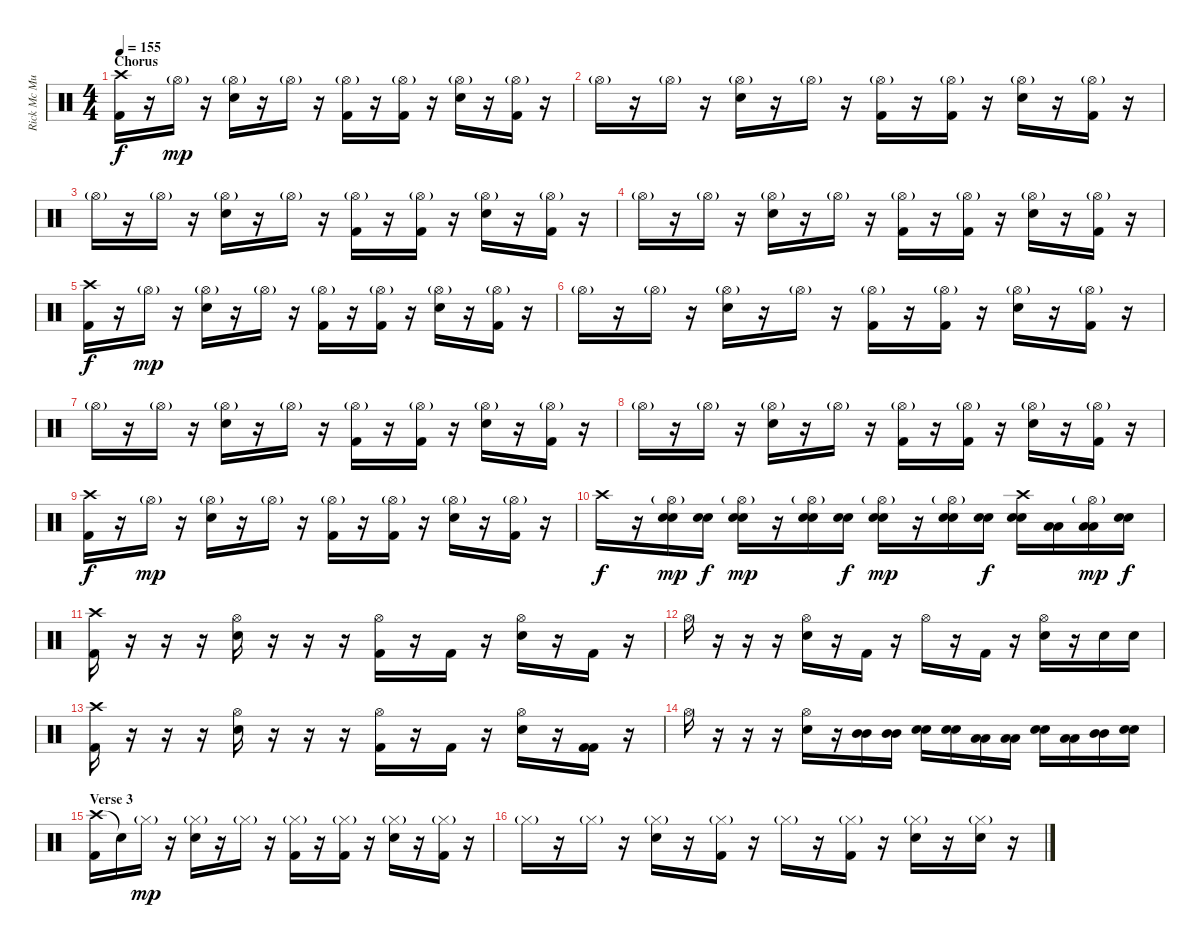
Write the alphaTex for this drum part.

\track ("Rick Mc Murray" "Rick Mc Mu") {instrument percussion}
\staff {score}
\articulation defaults
\ts (4 4)
\section ("" "Chorus")
\tempo 155
\clef neutral
\ks c
("Crash high (hit)" "Kick (hit) 2").16{dy f} r.16 "Hi-Hat (open)"{g}.16{dy mp} r.16 ("Hi-Hat (open)"{g} "Electric Snare (hit)").16 r.16 "Hi-Hat (open)"{g}.16 r.16 ("Hi-Hat (open)"{g} "Kick (hit) 2").16 r.16 ("Hi-Hat (open)"{g} "Kick (hit) 2").16 r.16 ("Hi-Hat (open)"{g} "Electric Snare (hit)").16 r.16 ("Hi-Hat (open)"{g} "Kick (hit) 2").16 r.16 |
"Hi-Hat (open)"{g}.16 r.16 "Hi-Hat (open)"{g}.16 r.16 ("Hi-Hat (open)"{g} "Electric Snare (hit)").16 r.16 "Hi-Hat (open)"{g}.16 r.16 ("Hi-Hat (open)"{g} "Kick (hit) 2").16 r.16 ("Hi-Hat (open)"{g} "Kick (hit) 2").16 r.16 ("Hi-Hat (open)"{g} "Electric Snare (hit)").16 r.16 ("Hi-Hat (open)"{g} "Kick (hit) 2").16 r.16 |
"Hi-Hat (open)"{g}.16 r.16 "Hi-Hat (open)"{g}.16 r.16 ("Hi-Hat (open)"{g} "Electric Snare (hit)").16 r.16 "Hi-Hat (open)"{g}.16 r.16 ("Hi-Hat (open)"{g} "Kick (hit) 2").16 r.16 ("Hi-Hat (open)"{g} "Kick (hit) 2").16 r.16 ("Hi-Hat (open)"{g} "Electric Snare (hit)").16 r.16 ("Hi-Hat (open)"{g} "Kick (hit) 2").16 r.16 |
"Hi-Hat (open)"{g}.16 r.16 "Hi-Hat (open)"{g}.16 r.16 ("Hi-Hat (open)"{g} "Electric Snare (hit)").16 r.16 "Hi-Hat (open)"{g}.16 r.16 ("Hi-Hat (open)"{g} "Kick (hit) 2").16 r.16 ("Hi-Hat (open)"{g} "Kick (hit) 2").16 r.16 ("Hi-Hat (open)"{g} "Electric Snare (hit)").16 r.16 ("Hi-Hat (open)"{g} "Kick (hit) 2").16 r.16 |
("Crash high (hit)" "Kick (hit) 2").16{dy f} r.16 "Hi-Hat (open)"{g}.16{dy mp} r.16 ("Hi-Hat (open)"{g} "Electric Snare (hit)").16 r.16 "Hi-Hat (open)"{g}.16 r.16 ("Hi-Hat (open)"{g} "Kick (hit) 2").16 r.16 ("Hi-Hat (open)"{g} "Kick (hit) 2").16 r.16 ("Hi-Hat (open)"{g} "Electric Snare (hit)").16 r.16 ("Hi-Hat (open)"{g} "Kick (hit) 2").16 r.16 |
"Hi-Hat (open)"{g}.16 r.16 "Hi-Hat (open)"{g}.16 r.16 ("Hi-Hat (open)"{g} "Electric Snare (hit)").16 r.16 "Hi-Hat (open)"{g}.16 r.16 ("Hi-Hat (open)"{g} "Kick (hit) 2").16 r.16 ("Hi-Hat (open)"{g} "Kick (hit) 2").16 r.16 ("Hi-Hat (open)"{g} "Electric Snare (hit)").16 r.16 ("Hi-Hat (open)"{g} "Kick (hit) 2").16 r.16 |
"Hi-Hat (open)"{g}.16 r.16 "Hi-Hat (open)"{g}.16 r.16 ("Hi-Hat (open)"{g} "Electric Snare (hit)").16 r.16 "Hi-Hat (open)"{g}.16 r.16 ("Hi-Hat (open)"{g} "Kick (hit) 2").16 r.16 ("Hi-Hat (open)"{g} "Kick (hit) 2").16 r.16 ("Hi-Hat (open)"{g} "Electric Snare (hit)").16 r.16 ("Hi-Hat (open)"{g} "Kick (hit) 2").16 r.16 |
"Hi-Hat (open)"{g}.16 r.16 "Hi-Hat (open)"{g}.16 r.16 ("Hi-Hat (open)"{g} "Electric Snare (hit)").16 r.16 "Hi-Hat (open)"{g}.16 r.16 ("Hi-Hat (open)"{g} "Kick (hit) 2").16 r.16 ("Hi-Hat (open)"{g} "Kick (hit) 2").16 r.16 ("Hi-Hat (open)"{g} "Electric Snare (hit)").16 r.16 ("Hi-Hat (open)"{g} "Kick (hit) 2").16 r.16 |
("Crash high (hit)" "Kick (hit) 2").16{dy f} r.16 "Hi-Hat (open)"{g}.16{dy mp} r.16 ("Hi-Hat (open)"{g} "Electric Snare (hit)").16 r.16 "Hi-Hat (open)"{g}.16 r.16 ("Hi-Hat (open)"{g} "Kick (hit) 2").16 r.16 ("Hi-Hat (open)"{g} "Kick (hit) 2").16 r.16 ("Hi-Hat (open)"{g} "Electric Snare (hit)").16 r.16 ("Hi-Hat (open)"{g} "Kick (hit) 2").16 r.16 |
"Crash high (hit)".16{dy f} r.16 ("Hi-Hat (open)"{g} "Electric Snare (hit)" "Snare (hit) 2").16{dy mp} ("Electric Snare (hit)" "Snare (hit) 2").16{dy f} ("Hi-Hat (open)"{g} "Electric Snare (hit)" "Snare (hit) 2").16{dy mp} r.16 ("Hi-Hat (open)"{g} "Electric Snare (hit)" "Snare (hit) 2").16 ("Electric Snare (hit)" "Snare (hit) 2").16{dy f} ("Hi-Hat (open)"{g} "Electric Snare (hit)" "Snare (hit) 2").16{dy mp} r.16 ("Hi-Hat (open)"{g} "Electric Snare (hit)" "Snare (hit) 2").16 ("Electric Snare (hit)" "Snare (hit) 2").16{dy f} ("Crash high (hit)" "Electric Snare (hit)" "Snare (hit) 2").16 ("Low Tom (hit)" "Low Tom (hit)").16 ("Hi-Hat (open)"{g} "Low Tom (hit)" "Low Tom (hit)").16{dy mp} ("Electric Snare (hit)" "Snare (hit) 2").16{dy f} |
("Crash high (hit)" "Kick (hit) 2").16 r.16 r.16 r.16 ("Hi-Hat (open)" "Electric Snare (hit)").16 r.16 r.16 r.16 ("Hi-Hat (open)" "Kick (hit) 2").16 r.16 "Kick (hit) 2".16 r.16 ("Hi-Hat (open)" "Electric Snare (hit)").16 r.16 "Kick (hit) 2".16 r.16 |
"Hi-Hat (open)".16 r.16 r.16 r.16 ("Hi-Hat (open)" "Electric Snare (hit)").16 r.16 "Kick (hit) 2".16 r.16 "Hi-Hat (open)".16 r.16 "Kick (hit) 2".16 r.16 ("Hi-Hat (open)" "Electric Snare (hit)").16 r.16 "Electric Snare (hit)".16 "Electric Snare (hit)".16 |
("Crash high (hit)" "Kick (hit) 2").16 r.16 r.16 r.16 ("Hi-Hat (open)" "Electric Snare (hit)").16 r.16 r.16 r.16 ("Hi-Hat (open)" "Kick (hit) 2").16 r.16 "Kick (hit) 2".16 r.16 ("Hi-Hat (open)" "Electric Snare (hit)").16 r.16 ("Kick (hit) 2" "Kick (hit) 2").16 r.16 |
"Hi-Hat (open)".16 r.16 r.16 r.16 ("Hi-Hat (open)" "Electric Snare (hit)").16 r.16 ("Mid Tom (hit)" "Mid Tom (hit)").16 ("Mid Tom (hit)" "Mid Tom (hit)").16 ("Snare (hit) 2" "Electric Snare (hit)").16 ("Snare (hit) 2" "Electric Snare (hit)").16 ("Low Tom (hit)" "Low Tom (hit)").16 ("Low Tom (hit)" "Low Tom (hit)").16 ("Snare (hit) 2" "Electric Snare (hit)").16 ("Low Tom (hit)" "Low Tom (hit)").16 ("Mid Tom (hit)" "Mid Tom (hit)").16 ("Snare (hit) 2" "Electric Snare (hit)").16 |
\section ("" "Verse 3")
("Crash high (hit)" "Kick (hit) 2").16 "Snare (hit)"{t}.16 "Hi-Hat (closed)"{g}.16{dy mp} r.16 ("Hi-Hat (closed)"{g} "Electric Snare (hit)").16 r.16 "Hi-Hat (closed)"{g}.16 r.16 ("Hi-Hat (closed)"{g} "Kick (hit) 2").16 r.16 ("Hi-Hat (closed)"{g} "Kick (hit) 2").16 r.16 ("Hi-Hat (closed)"{g} "Electric Snare (hit)").16 r.16 ("Hi-Hat (closed)"{g} "Kick (hit) 2").16 r.16 |
"Hi-Hat (closed)"{g}.16 r.16 "Hi-Hat (closed)"{g}.16 r.16 ("Hi-Hat (closed)"{g} "Electric Snare (hit)").16 r.16 ("Hi-Hat (closed)"{g} "Kick (hit) 2").16 r.16 "Hi-Hat (closed)"{g}.16 r.16 ("Hi-Hat (closed)"{g} "Kick (hit) 2").16 r.16 ("Hi-Hat (closed)"{g} "Electric Snare (hit)").16 r.16 ("Hi-Hat (closed)"{g} "Electric Snare (hit)").16 r.16
